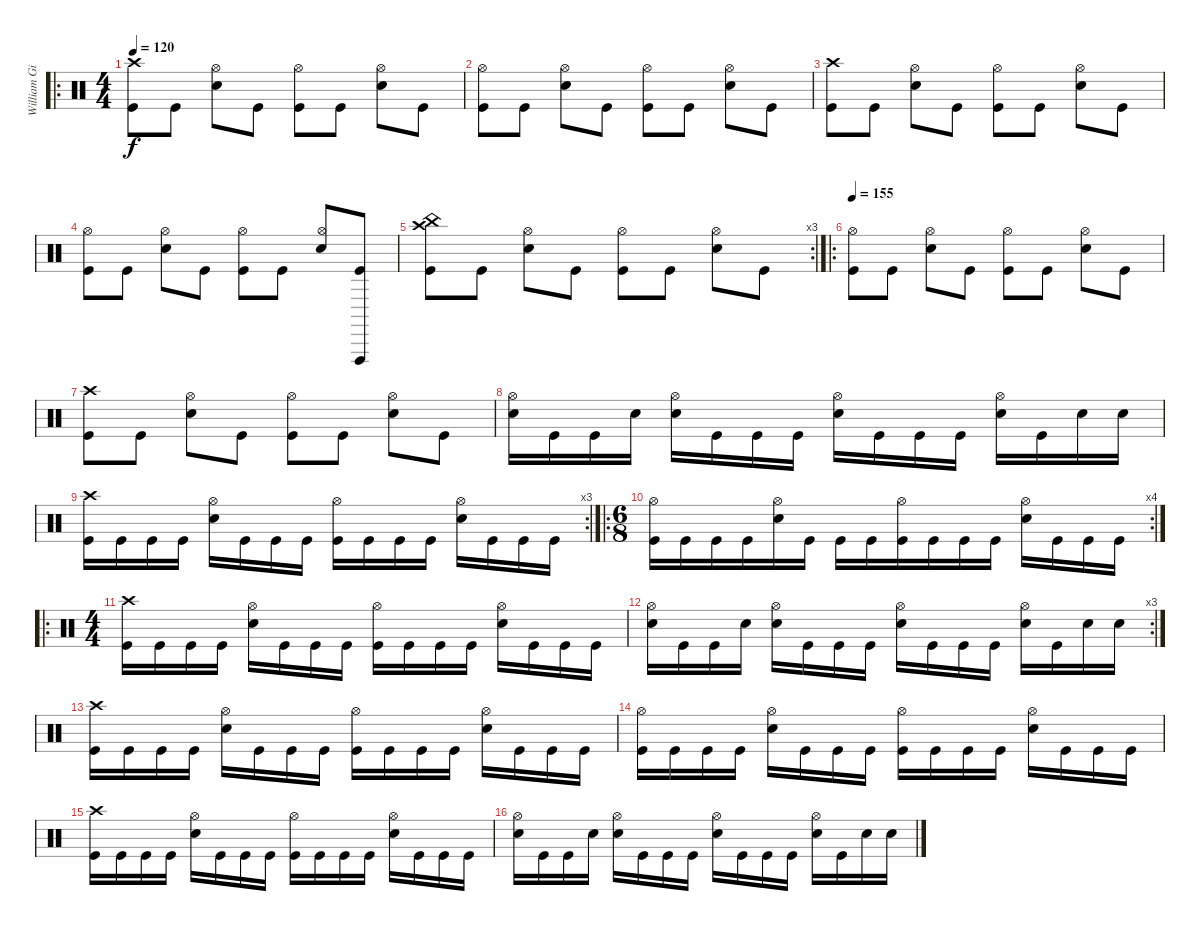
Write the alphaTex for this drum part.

\track ("William Gibson DRUMS" "William Gi") {instrument percussion}
\staff {score}
\articulation defaults
\ro
\ts (4 4)
\tempo 120
\tempo 150
\tempo 140
\tempo 120
\clef neutral
\ks c
("Crash high (hit)" "Kick (hit)").8{dy f} "Kick (hit)".8 ("Hi-Hat (open)" "Electric Snare (hit)").8 "Kick (hit)".8 ("Hi-Hat (open)" "Kick (hit)").8 "Kick (hit)".8 ("Hi-Hat (open)" "Electric Snare (hit)").8 "Kick (hit)".8 |
("Hi-Hat (open)" "Kick (hit)").8 "Kick (hit)".8 ("Hi-Hat (open)" "Electric Snare (hit)").8 "Kick (hit)".8 ("Hi-Hat (open)" "Kick (hit)").8 "Kick (hit)".8 ("Hi-Hat (open)" "Electric Snare (hit)").8 "Kick (hit)".8 |
("Crash high (hit)" "Kick (hit)").8 "Kick (hit)".8 ("Hi-Hat (open)" "Electric Snare (hit)").8 "Kick (hit)".8 ("Hi-Hat (open)" "Kick (hit)").8 "Kick (hit)".8 ("Hi-Hat (open)" "Electric Snare (hit)").8 "Kick (hit)".8 |
("Hi-Hat (open)" "Kick (hit)").8 "Kick (hit)".8 ("Hi-Hat (open)" "Electric Snare (hit)").8 "Kick (hit)".8 ("Hi-Hat (open)" "Kick (hit)").8 "Kick (hit)".8 ("Hi-Hat (open)" "Electric Snare (hit)").8 ("Vibraslap (hit)" "Kick (hit)").8 |
\rc 3
("Crash high (hit)" "China (hit)" "Kick (hit)").8 "Kick (hit)".8 ("Hi-Hat (open)" "Electric Snare (hit)").8 "Kick (hit)".8 ("Hi-Hat (open)" "Kick (hit)").8 "Kick (hit)".8 ("Hi-Hat (open)" "Electric Snare (hit)").8 "Kick (hit)".8 |
\ro
\tempo 155
("Hi-Hat (open)" "Kick (hit)").8 "Kick (hit)".8 ("Hi-Hat (open)" "Electric Snare (hit)").8 "Kick (hit)".8 ("Hi-Hat (open)" "Kick (hit)").8 "Kick (hit)".8 ("Hi-Hat (open)" "Electric Snare (hit)").8 "Kick (hit)".8 |
("Crash high (hit)" "Kick (hit)").8 "Kick (hit)".8 ("Hi-Hat (open)" "Electric Snare (hit)").8 "Kick (hit)".8 ("Hi-Hat (open)" "Kick (hit)").8 "Kick (hit)".8 ("Hi-Hat (open)" "Electric Snare (hit)").8 "Kick (hit)".8 |
("Hi-Hat (open)" "Electric Snare (hit)").16 "Kick (hit)".16 "Kick (hit)".16 "Electric Snare (hit)".16 ("Hi-Hat (open)" "Electric Snare (hit)").16 "Kick (hit)".16 "Kick (hit)".16 "Kick (hit)".16 ("Hi-Hat (open)" "Electric Snare (hit)").16 "Kick (hit)".16 "Kick (hit)".16 "Kick (hit)".16 ("Hi-Hat (open)" "Electric Snare (hit)").16 "Kick (hit)".16 "Electric Snare (hit)".16 "Electric Snare (hit)".16 |
\rc 3
("Crash high (hit)" "Kick (hit)").16 "Kick (hit)".16 "Kick (hit)".16 "Kick (hit)".16 ("Hi-Hat (open)" "Electric Snare (hit)").16 "Kick (hit)".16 "Kick (hit)".16 "Kick (hit)".16 ("Hi-Hat (open)" "Kick (hit)").16 "Kick (hit)".16 "Kick (hit)".16 "Kick (hit)".16 ("Hi-Hat (open)" "Electric Snare (hit)").16 "Kick (hit)".16 "Kick (hit)".16 "Kick (hit)".16 |
\ro
\rc 4
\ts (6 8)
("Hi-Hat (open)" "Kick (hit)").16 "Kick (hit)".16 "Kick (hit)".16 "Kick (hit)".16 ("Hi-Hat (open)" "Electric Snare (hit)").16 "Kick (hit)".16 "Kick (hit)".16 "Kick (hit)".16 ("Hi-Hat (open)" "Kick (hit)").16 "Kick (hit)".16 "Kick (hit)".16 "Kick (hit)".16 ("Hi-Hat (open)" "Electric Snare (hit)").16 "Kick (hit)".16 "Kick (hit)".16 "Kick (hit)".16 |
\ro
\ts (4 4)
("Crash high (hit)" "Kick (hit)").16 "Kick (hit)".16 "Kick (hit)".16 "Kick (hit)".16 ("Hi-Hat (open)" "Electric Snare (hit)").16 "Kick (hit)".16 "Kick (hit)".16 "Kick (hit)".16 ("Hi-Hat (open)" "Kick (hit)").16 "Kick (hit)".16 "Kick (hit)".16 "Kick (hit)".16 ("Hi-Hat (open)" "Electric Snare (hit)").16 "Kick (hit)".16 "Kick (hit)".16 "Kick (hit)".16 |
\rc 3
("Hi-Hat (open)" "Electric Snare (hit)").16 "Kick (hit)".16 "Kick (hit)".16 "Electric Snare (hit)".16 ("Hi-Hat (open)" "Electric Snare (hit)").16 "Kick (hit)".16 "Kick (hit)".16 "Kick (hit)".16 ("Hi-Hat (open)" "Electric Snare (hit)").16 "Kick (hit)".16 "Kick (hit)".16 "Kick (hit)".16 ("Hi-Hat (open)" "Electric Snare (hit)").16 "Kick (hit)".16 "Electric Snare (hit)".16 "Electric Snare (hit)".16 |
("Crash high (hit)" "Kick (hit)").16 "Kick (hit)".16 "Kick (hit)".16 "Kick (hit)".16 ("Hi-Hat (open)" "Electric Snare (hit)").16 "Kick (hit)".16 "Kick (hit)".16 "Kick (hit)".16 ("Hi-Hat (open)" "Kick (hit)").16 "Kick (hit)".16 "Kick (hit)".16 "Kick (hit)".16 ("Hi-Hat (open)" "Electric Snare (hit)").16 "Kick (hit)".16 "Kick (hit)".16 "Kick (hit)".16 |
("Hi-Hat (open)" "Kick (hit)").16 "Kick (hit)".16 "Kick (hit)".16 "Kick (hit)".16 ("Hi-Hat (open)" "Electric Snare (hit)").16 "Kick (hit)".16 "Kick (hit)".16 "Kick (hit)".16 ("Hi-Hat (open)" "Kick (hit)").16 "Kick (hit)".16 "Kick (hit)".16 "Kick (hit)".16 ("Hi-Hat (open)" "Electric Snare (hit)").16 "Kick (hit)".16 "Kick (hit)".16 "Kick (hit)".16 |
("Crash high (hit)" "Kick (hit)").16 "Kick (hit)".16 "Kick (hit)".16 "Kick (hit)".16 ("Hi-Hat (open)" "Electric Snare (hit)").16 "Kick (hit)".16 "Kick (hit)".16 "Kick (hit)".16 ("Hi-Hat (open)" "Kick (hit)").16 "Kick (hit)".16 "Kick (hit)".16 "Kick (hit)".16 ("Hi-Hat (open)" "Electric Snare (hit)").16 "Kick (hit)".16 "Kick (hit)".16 "Kick (hit)".16 |
("Hi-Hat (open)" "Electric Snare (hit)").16 "Kick (hit)".16 "Kick (hit)".16 "Electric Snare (hit)".16 ("Hi-Hat (open)" "Electric Snare (hit)").16 "Kick (hit)".16 "Kick (hit)".16 "Kick (hit)".16 ("Hi-Hat (open)" "Electric Snare (hit)").16 "Kick (hit)".16 "Kick (hit)".16 "Kick (hit)".16 ("Hi-Hat (open)" "Electric Snare (hit)").16 "Kick (hit)".16 "Electric Snare (hit)".16 "Electric Snare (hit)".16
